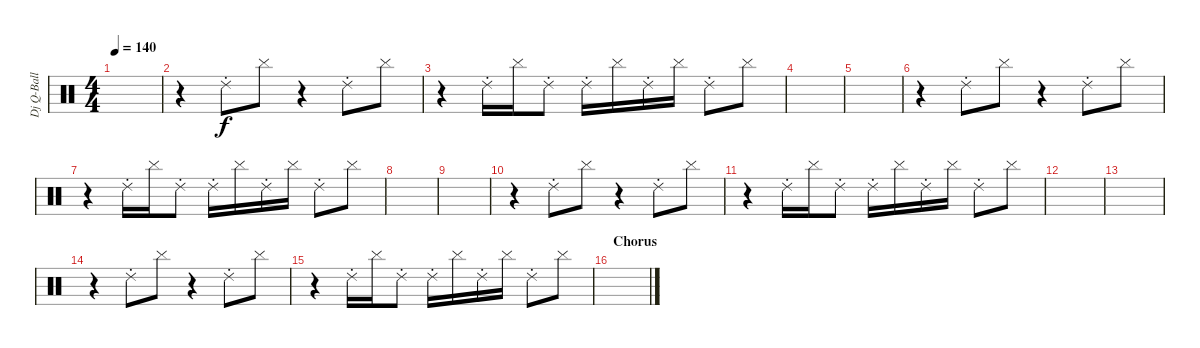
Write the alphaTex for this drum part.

\track ("Dj Q-Ball" "Dj Q-Ball") {instrument percussion}
\staff {score}
\articulation defaults
\ts (4 4)
\tempo 140
\clef neutral
\ks c
|
r.4 "Ride (choke) 2".8{dy f} "Cymbal (hit)".8 r.4 "Ride (choke) 2".8 "Cymbal (hit)".8 |
r.4 "Ride (choke) 2".16 "Cymbal (hit)".16 "Ride (choke) 2".8 "Ride (choke) 2".16 "Cymbal (hit)".16 "Ride (choke) 2".16 "Cymbal (hit)".16 "Ride (choke) 2".8 "Cymbal (hit)".8 |
|
|
r.4 "Ride (choke) 2".8 "Cymbal (hit)".8 r.4 "Ride (choke) 2".8 "Cymbal (hit)".8 |
r.4 "Ride (choke) 2".16 "Cymbal (hit)".16 "Ride (choke) 2".8 "Ride (choke) 2".16 "Cymbal (hit)".16 "Ride (choke) 2".16 "Cymbal (hit)".16 "Ride (choke) 2".8 "Cymbal (hit)".8 |
|
|
r.4 "Ride (choke) 2".8 "Cymbal (hit)".8 r.4 "Ride (choke) 2".8 "Cymbal (hit)".8 |
r.4 "Ride (choke) 2".16 "Cymbal (hit)".16 "Ride (choke) 2".8 "Ride (choke) 2".16 "Cymbal (hit)".16 "Ride (choke) 2".16 "Cymbal (hit)".16 "Ride (choke) 2".8 "Cymbal (hit)".8 |
|
|
r.4 "Ride (choke) 2".8 "Cymbal (hit)".8 r.4 "Ride (choke) 2".8 "Cymbal (hit)".8 |
r.4 "Ride (choke) 2".16 "Cymbal (hit)".16 "Ride (choke) 2".8 "Ride (choke) 2".16 "Cymbal (hit)".16 "Ride (choke) 2".16 "Cymbal (hit)".16 "Ride (choke) 2".8 "Cymbal (hit)".8 |
\section ("" "Chorus")
